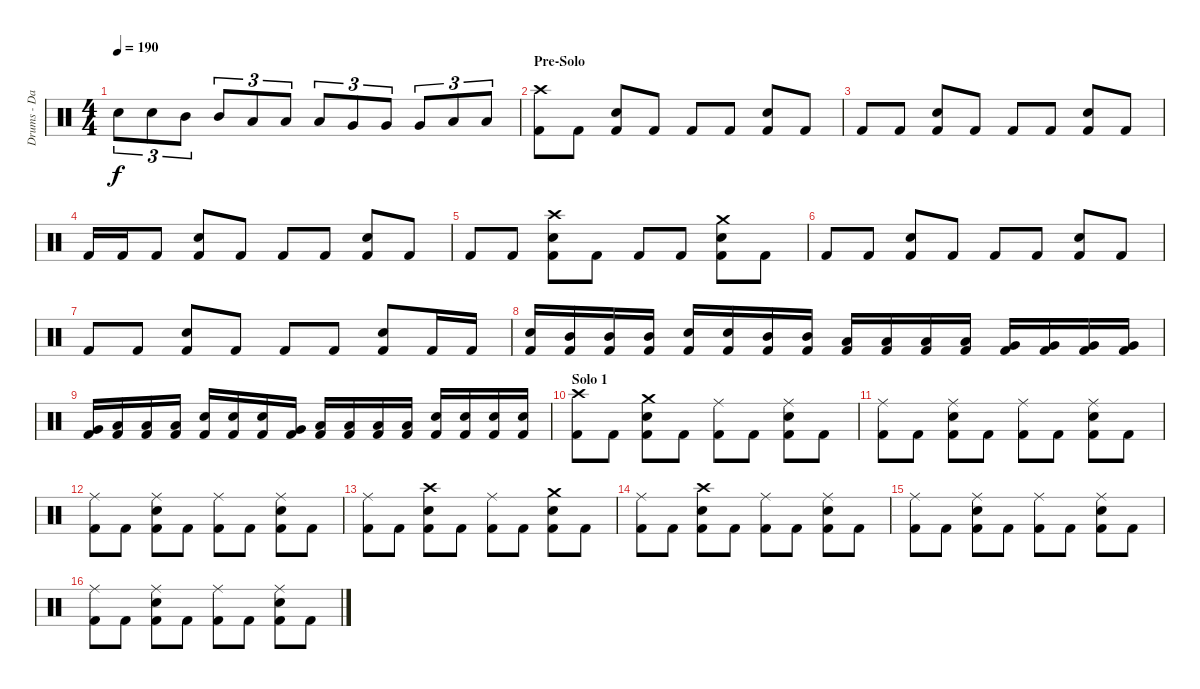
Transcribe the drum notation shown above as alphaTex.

\track ("Drums - Daniel Zimmermann" "Drums - Da") {instrument percussion}
\staff {score}
\articulation defaults
\ts (4 4)
\tempo 190
\clef neutral
\ks c "Electric Snare (hit)".8{tu (3 2) dy f} "Electric Snare (hit)".8{tu (3 2)} "Mid Tom (hit)".8{tu (3 2)} "Mid Tom (hit)".8{tu (3 2)} "Low Tom (hit)".8{tu (3 2)} "Low Tom (hit)".8{tu (3 2)} "Low Tom (hit)".8{tu (3 2)} "Very Low Tom (hit)".8{tu (3 2)} "Very Low Tom (hit)".8{tu (3 2)} "Very Low Tom (hit)".8{tu (3 2)} "Low Floor Tom (hit)".8{tu (3 2)} "Low Floor Tom (hit)".8{tu (3 2)}
|
\section ("" "Pre-Solo")
("Kick (hit) 2" "Crash high (hit)").8 "Kick (hit) 2".8 ("Kick (hit) 2" "Electric Snare (hit)").8 "Kick (hit) 2".8 "Kick (hit) 2".8 "Kick (hit) 2".8 ("Kick (hit) 2" "Electric Snare (hit)").8 "Kick (hit) 2".8 |
"Kick (hit) 2".8 "Kick (hit) 2".8 ("Kick (hit) 2" "Electric Snare (hit)").8 "Kick (hit) 2".8 "Kick (hit) 2".8 "Kick (hit) 2".8 ("Kick (hit) 2" "Electric Snare (hit)").8 "Kick (hit) 2".8 |
"Kick (hit) 2".16 "Kick (hit) 2".16 "Kick (hit) 2".8 ("Kick (hit) 2" "Electric Snare (hit)").8 "Kick (hit) 2".8 "Kick (hit) 2".8 "Kick (hit) 2".8 ("Kick (hit) 2" "Electric Snare (hit)").8 "Kick (hit) 2".8 |
"Kick (hit) 2".8 "Kick (hit) 2".8 ("Kick (hit) 2" "Electric Snare (hit)" "Crash high (hit)").8 "Kick (hit) 2".8 "Kick (hit) 2".8 "Kick (hit) 2".8 ("Kick (hit) 2" "Electric Snare (hit)" "Crash medium (hit)").8 "Kick (hit) 2".8 |
"Kick (hit) 2".8 "Kick (hit) 2".8 ("Kick (hit) 2" "Electric Snare (hit)").8 "Kick (hit) 2".8 "Kick (hit) 2".8 "Kick (hit) 2".8 ("Kick (hit) 2" "Electric Snare (hit)").8 "Kick (hit) 2".8 |
"Kick (hit) 2".8 "Kick (hit) 2".8 ("Kick (hit) 2" "Electric Snare (hit)").8 "Kick (hit) 2".8 "Kick (hit) 2".8 "Kick (hit) 2".8 ("Kick (hit) 2" "Electric Snare (hit)").8 "Kick (hit) 2".16 "Kick (hit) 2".16 |
("Kick (hit) 2" "Electric Snare (hit)").16 ("Kick (hit) 2" "Mid Tom (hit)").16 ("Kick (hit) 2" "Mid Tom (hit)").16 ("Kick (hit) 2" "Mid Tom (hit)").16 ("Kick (hit) 2" "Electric Snare (hit)").16 ("Kick (hit) 2" "Electric Snare (hit)").16 ("Kick (hit) 2" "Mid Tom (hit)").16 ("Kick (hit) 2" "Mid Tom (hit)").16 ("Kick (hit) 2" "Low Tom (hit)").16 ("Kick (hit) 2" "Low Tom (hit)").16 ("Kick (hit) 2" "Low Tom (hit)").16 ("Kick (hit) 2" "Low Tom (hit)").16 ("Kick (hit) 2" "Very Low Tom (hit)").16 ("Kick (hit) 2" "Very Low Tom (hit)").16 ("Kick (hit) 2" "Very Low Tom (hit)").16 ("Kick (hit) 2" "Very Low Tom (hit)").16 |
("Kick (hit) 2" "Very Low Tom (hit)").16 ("Kick (hit) 2" "Low Floor Tom (hit)").16 ("Kick (hit) 2" "Low Floor Tom (hit)").16 ("Kick (hit) 2" "Low Floor Tom (hit)").16 ("Kick (hit) 2" "Electric Snare (hit)").16 ("Kick (hit) 2" "Electric Snare (hit)").16 ("Kick (hit) 2" "Electric Snare (hit)").16 ("Kick (hit) 2" "Very Low Tom (hit)").16 ("Kick (hit) 2" "Low Floor Tom (hit)").16 ("Kick (hit) 2" "Low Floor Tom (hit)").16 ("Kick (hit) 2" "Low Floor Tom (hit)").16 ("Kick (hit) 2" "Low Floor Tom (hit)").16 ("Kick (hit) 2" "Electric Snare (hit)").16 ("Kick (hit) 2" "Electric Snare (hit)").16 ("Kick (hit) 2" "Electric Snare (hit)").16 ("Kick (hit) 2" "Electric Snare (hit)").16 |
\section ("" "Solo 1")
("Kick (hit) 2" "Crash high (hit)").8 "Kick (hit) 2".8 ("Kick (hit) 2" "Electric Snare (hit)" "Crash medium (hit)").8 "Kick (hit) 2".8 ("Kick (hit) 2" "Ride (middle)").8 "Kick (hit) 2".8 ("Kick (hit) 2" "Electric Snare (hit)" "Ride (middle)").8 "Kick (hit) 2".8 |
("Kick (hit) 2" "Ride (middle)").8 "Kick (hit) 2".8 ("Kick (hit) 2" "Electric Snare (hit)" "Ride (middle)").8 "Kick (hit) 2".8 ("Kick (hit) 2" "Ride (middle)").8 "Kick (hit) 2".8 ("Kick (hit) 2" "Electric Snare (hit)" "Ride (middle)").8 "Kick (hit) 2".8 |
("Kick (hit) 2" "Ride (middle)").8 "Kick (hit) 2".8 ("Kick (hit) 2" "Electric Snare (hit)" "Ride (middle)").8 "Kick (hit) 2".8 ("Kick (hit) 2" "Ride (middle)").8 "Kick (hit) 2".8 ("Kick (hit) 2" "Electric Snare (hit)" "Ride (middle)").8 "Kick (hit) 2".8 |
("Kick (hit) 2" "Ride (middle)").8 "Kick (hit) 2".8 ("Kick (hit) 2" "Electric Snare (hit)" "Crash high (hit)").8 "Kick (hit) 2".8 ("Kick (hit) 2" "Ride (middle)").8 "Kick (hit) 2".8 ("Kick (hit) 2" "Electric Snare (hit)" "Crash medium (hit)").8 "Kick (hit) 2".8 |
("Kick (hit) 2" "Ride (middle)").8 "Kick (hit) 2".8 ("Kick (hit) 2" "Electric Snare (hit)" "Crash high (hit)").8 "Kick (hit) 2".8 ("Kick (hit) 2" "Ride (middle)").8 "Kick (hit) 2".8 ("Kick (hit) 2" "Electric Snare (hit)" "Ride (middle)").8 "Kick (hit) 2".8 |
("Kick (hit) 2" "Ride (middle)").8 "Kick (hit) 2".8 ("Kick (hit) 2" "Electric Snare (hit)" "Ride (middle)").8 "Kick (hit) 2".8 ("Kick (hit) 2" "Ride (middle)").8 "Kick (hit) 2".8 ("Kick (hit) 2" "Electric Snare (hit)" "Ride (middle)").8 "Kick (hit) 2".8 |
("Kick (hit) 2" "Ride (middle)").8 "Kick (hit) 2".8 ("Kick (hit) 2" "Electric Snare (hit)" "Ride (middle)").8 "Kick (hit) 2".8 ("Kick (hit) 2" "Ride (middle)").8 "Kick (hit) 2".8 ("Kick (hit) 2" "Electric Snare (hit)" "Ride (middle)").8 "Kick (hit) 2".8
